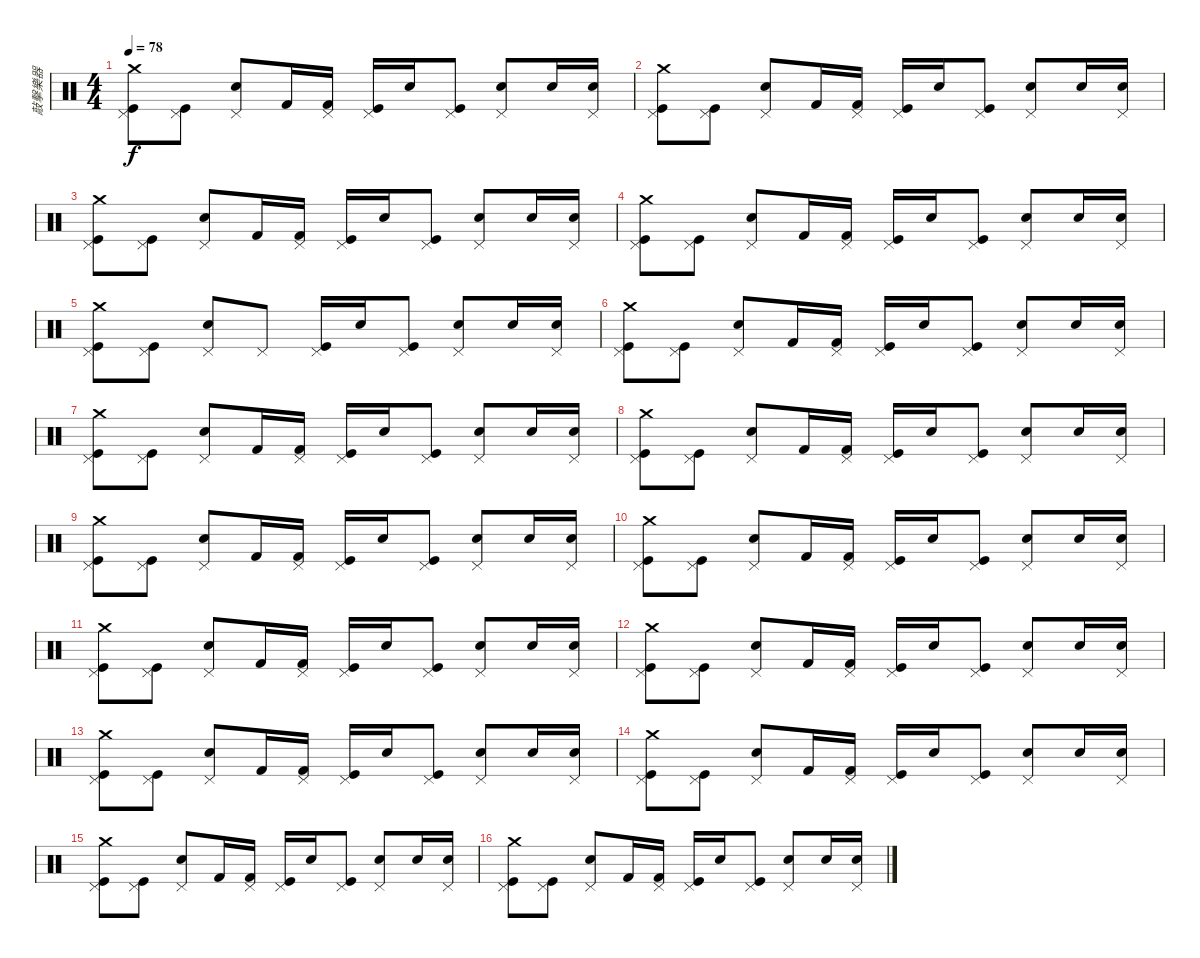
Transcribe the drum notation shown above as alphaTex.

\track ("敲擊樂器" "敲擊樂器") {instrument percussion}
\staff {score}
\articulation defaults
\ts (4 4)
\tempo 78
\clef neutral
\ks c
("Pedal Hi-Hat (hit)" "Kick (hit)" "Crash medium (hit)").8{dy f} ("Pedal Hi-Hat (hit)" "Kick (hit)").8 ("Pedal Hi-Hat (hit)" "Electric Snare (hit)").8 "Kick (hit) 2".16 ("Pedal Hi-Hat (hit)" "Kick (hit) 2").16 ("Pedal Hi-Hat (hit)" "Kick (hit)").16 "Electric Snare (hit)".16 ("Pedal Hi-Hat (hit)" "Kick (hit)").8 ("Pedal Hi-Hat (hit)" "Electric Snare (hit)").8 "Electric Snare (hit)".16 ("Pedal Hi-Hat (hit)" "Electric Snare (hit)").16 |
("Pedal Hi-Hat (hit)" "Kick (hit)" "Crash medium (hit)").8 ("Pedal Hi-Hat (hit)" "Kick (hit)").8 ("Pedal Hi-Hat (hit)" "Electric Snare (hit)").8 "Kick (hit) 2".16 ("Pedal Hi-Hat (hit)" "Kick (hit) 2").16 ("Pedal Hi-Hat (hit)" "Kick (hit)").16 "Electric Snare (hit)".16 ("Pedal Hi-Hat (hit)" "Kick (hit)").8 ("Pedal Hi-Hat (hit)" "Electric Snare (hit)").8 "Electric Snare (hit)".16 ("Pedal Hi-Hat (hit)" "Electric Snare (hit)").16 |
("Pedal Hi-Hat (hit)" "Kick (hit)" "Crash medium (hit)").8 ("Pedal Hi-Hat (hit)" "Kick (hit)").8 ("Pedal Hi-Hat (hit)" "Electric Snare (hit)").8 "Kick (hit) 2".16 ("Pedal Hi-Hat (hit)" "Kick (hit) 2").16 ("Pedal Hi-Hat (hit)" "Kick (hit)").16 "Electric Snare (hit)".16 ("Pedal Hi-Hat (hit)" "Kick (hit)").8 ("Pedal Hi-Hat (hit)" "Electric Snare (hit)").8 "Electric Snare (hit)".16 ("Pedal Hi-Hat (hit)" "Electric Snare (hit)").16 |
("Pedal Hi-Hat (hit)" "Kick (hit)" "Crash medium (hit)").8 ("Pedal Hi-Hat (hit)" "Kick (hit)").8 ("Pedal Hi-Hat (hit)" "Electric Snare (hit)").8 "Kick (hit) 2".16 ("Pedal Hi-Hat (hit)" "Kick (hit) 2").16 ("Pedal Hi-Hat (hit)" "Kick (hit)").16 "Electric Snare (hit)".16 ("Pedal Hi-Hat (hit)" "Kick (hit)").8 ("Pedal Hi-Hat (hit)" "Electric Snare (hit)").8 "Electric Snare (hit)".16 ("Pedal Hi-Hat (hit)" "Electric Snare (hit)").16 |
("Pedal Hi-Hat (hit)" "Kick (hit)" "Crash medium (hit)").8 ("Pedal Hi-Hat (hit)" "Kick (hit)").8 ("Pedal Hi-Hat (hit)" "Electric Snare (hit)").8 "Pedal Hi-Hat (hit)".8 ("Pedal Hi-Hat (hit)" "Kick (hit)").16 "Electric Snare (hit)".16 ("Pedal Hi-Hat (hit)" "Kick (hit)").8 ("Pedal Hi-Hat (hit)" "Electric Snare (hit)").8 "Electric Snare (hit)".16 ("Pedal Hi-Hat (hit)" "Electric Snare (hit)").16 |
("Pedal Hi-Hat (hit)" "Kick (hit)" "Crash medium (hit)").8 ("Pedal Hi-Hat (hit)" "Kick (hit)").8 ("Pedal Hi-Hat (hit)" "Electric Snare (hit)").8 "Kick (hit) 2".16 ("Pedal Hi-Hat (hit)" "Kick (hit) 2").16 ("Pedal Hi-Hat (hit)" "Kick (hit)").16 "Electric Snare (hit)".16 ("Pedal Hi-Hat (hit)" "Kick (hit)").8 ("Pedal Hi-Hat (hit)" "Electric Snare (hit)").8 "Electric Snare (hit)".16 ("Pedal Hi-Hat (hit)" "Electric Snare (hit)").16 |
("Pedal Hi-Hat (hit)" "Kick (hit)" "Crash medium (hit)").8 ("Pedal Hi-Hat (hit)" "Kick (hit)").8 ("Pedal Hi-Hat (hit)" "Electric Snare (hit)").8 "Kick (hit) 2".16 ("Pedal Hi-Hat (hit)" "Kick (hit) 2").16 ("Pedal Hi-Hat (hit)" "Kick (hit)").16 "Electric Snare (hit)".16 ("Pedal Hi-Hat (hit)" "Kick (hit)").8 ("Pedal Hi-Hat (hit)" "Electric Snare (hit)").8 "Electric Snare (hit)".16 ("Pedal Hi-Hat (hit)" "Electric Snare (hit)").16 |
("Pedal Hi-Hat (hit)" "Kick (hit)" "Crash medium (hit)").8 ("Pedal Hi-Hat (hit)" "Kick (hit)").8 ("Pedal Hi-Hat (hit)" "Electric Snare (hit)").8 "Kick (hit) 2".16 ("Pedal Hi-Hat (hit)" "Kick (hit) 2").16 ("Pedal Hi-Hat (hit)" "Kick (hit)").16 "Electric Snare (hit)".16 ("Pedal Hi-Hat (hit)" "Kick (hit)").8 ("Pedal Hi-Hat (hit)" "Electric Snare (hit)").8 "Electric Snare (hit)".16 ("Pedal Hi-Hat (hit)" "Electric Snare (hit)").16 |
("Pedal Hi-Hat (hit)" "Kick (hit)" "Crash medium (hit)").8 ("Pedal Hi-Hat (hit)" "Kick (hit)").8 ("Pedal Hi-Hat (hit)" "Electric Snare (hit)").8 "Kick (hit) 2".16 ("Pedal Hi-Hat (hit)" "Kick (hit) 2").16 ("Pedal Hi-Hat (hit)" "Kick (hit)").16 "Electric Snare (hit)".16 ("Pedal Hi-Hat (hit)" "Kick (hit)").8 ("Pedal Hi-Hat (hit)" "Electric Snare (hit)").8 "Electric Snare (hit)".16 ("Pedal Hi-Hat (hit)" "Electric Snare (hit)").16 |
("Pedal Hi-Hat (hit)" "Kick (hit)" "Crash medium (hit)").8 ("Pedal Hi-Hat (hit)" "Kick (hit)").8 ("Pedal Hi-Hat (hit)" "Electric Snare (hit)").8 "Kick (hit) 2".16 ("Pedal Hi-Hat (hit)" "Kick (hit) 2").16 ("Pedal Hi-Hat (hit)" "Kick (hit)").16 "Electric Snare (hit)".16 ("Pedal Hi-Hat (hit)" "Kick (hit)").8 ("Pedal Hi-Hat (hit)" "Electric Snare (hit)").8 "Electric Snare (hit)".16 ("Pedal Hi-Hat (hit)" "Electric Snare (hit)").16 |
("Pedal Hi-Hat (hit)" "Kick (hit)" "Crash medium (hit)").8 ("Pedal Hi-Hat (hit)" "Kick (hit)").8 ("Pedal Hi-Hat (hit)" "Electric Snare (hit)").8 "Kick (hit) 2".16 ("Pedal Hi-Hat (hit)" "Kick (hit) 2").16 ("Pedal Hi-Hat (hit)" "Kick (hit)").16 "Electric Snare (hit)".16 ("Pedal Hi-Hat (hit)" "Kick (hit)").8 ("Pedal Hi-Hat (hit)" "Electric Snare (hit)").8 "Electric Snare (hit)".16 ("Pedal Hi-Hat (hit)" "Electric Snare (hit)").16 |
("Pedal Hi-Hat (hit)" "Kick (hit)" "Crash medium (hit)").8 ("Pedal Hi-Hat (hit)" "Kick (hit)").8 ("Pedal Hi-Hat (hit)" "Electric Snare (hit)").8 "Kick (hit) 2".16 ("Pedal Hi-Hat (hit)" "Kick (hit) 2").16 ("Pedal Hi-Hat (hit)" "Kick (hit)").16 "Electric Snare (hit)".16 ("Pedal Hi-Hat (hit)" "Kick (hit)").8 ("Pedal Hi-Hat (hit)" "Electric Snare (hit)").8 "Electric Snare (hit)".16 ("Pedal Hi-Hat (hit)" "Electric Snare (hit)").16 |
("Pedal Hi-Hat (hit)" "Kick (hit)" "Crash medium (hit)").8 ("Pedal Hi-Hat (hit)" "Kick (hit)").8 ("Pedal Hi-Hat (hit)" "Electric Snare (hit)").8 "Kick (hit) 2".16 ("Pedal Hi-Hat (hit)" "Kick (hit) 2").16 ("Pedal Hi-Hat (hit)" "Kick (hit)").16 "Electric Snare (hit)".16 ("Pedal Hi-Hat (hit)" "Kick (hit)").8 ("Pedal Hi-Hat (hit)" "Electric Snare (hit)").8 "Electric Snare (hit)".16 ("Pedal Hi-Hat (hit)" "Electric Snare (hit)").16 |
("Pedal Hi-Hat (hit)" "Kick (hit)" "Crash medium (hit)").8 ("Pedal Hi-Hat (hit)" "Kick (hit)").8 ("Pedal Hi-Hat (hit)" "Electric Snare (hit)").8 "Kick (hit) 2".16 ("Pedal Hi-Hat (hit)" "Kick (hit) 2").16 ("Pedal Hi-Hat (hit)" "Kick (hit)").16 "Electric Snare (hit)".16 ("Pedal Hi-Hat (hit)" "Kick (hit)").8 ("Pedal Hi-Hat (hit)" "Electric Snare (hit)").8 "Electric Snare (hit)".16 ("Pedal Hi-Hat (hit)" "Electric Snare (hit)").16 |
("Pedal Hi-Hat (hit)" "Kick (hit)" "Crash medium (hit)").8 ("Pedal Hi-Hat (hit)" "Kick (hit)").8 ("Pedal Hi-Hat (hit)" "Electric Snare (hit)").8 "Kick (hit) 2".16 ("Pedal Hi-Hat (hit)" "Kick (hit) 2").16 ("Pedal Hi-Hat (hit)" "Kick (hit)").16 "Electric Snare (hit)".16 ("Pedal Hi-Hat (hit)" "Kick (hit)").8 ("Pedal Hi-Hat (hit)" "Electric Snare (hit)").8 "Electric Snare (hit)".16 ("Pedal Hi-Hat (hit)" "Electric Snare (hit)").16 |
("Pedal Hi-Hat (hit)" "Kick (hit)" "Crash medium (hit)").8 ("Pedal Hi-Hat (hit)" "Kick (hit)").8 ("Pedal Hi-Hat (hit)" "Electric Snare (hit)").8 "Kick (hit) 2".16 ("Pedal Hi-Hat (hit)" "Kick (hit) 2").16 ("Pedal Hi-Hat (hit)" "Kick (hit)").16 "Electric Snare (hit)".16 ("Pedal Hi-Hat (hit)" "Kick (hit)").8 ("Pedal Hi-Hat (hit)" "Electric Snare (hit)").8 "Electric Snare (hit)".16 ("Pedal Hi-Hat (hit)" "Electric Snare (hit)").16
